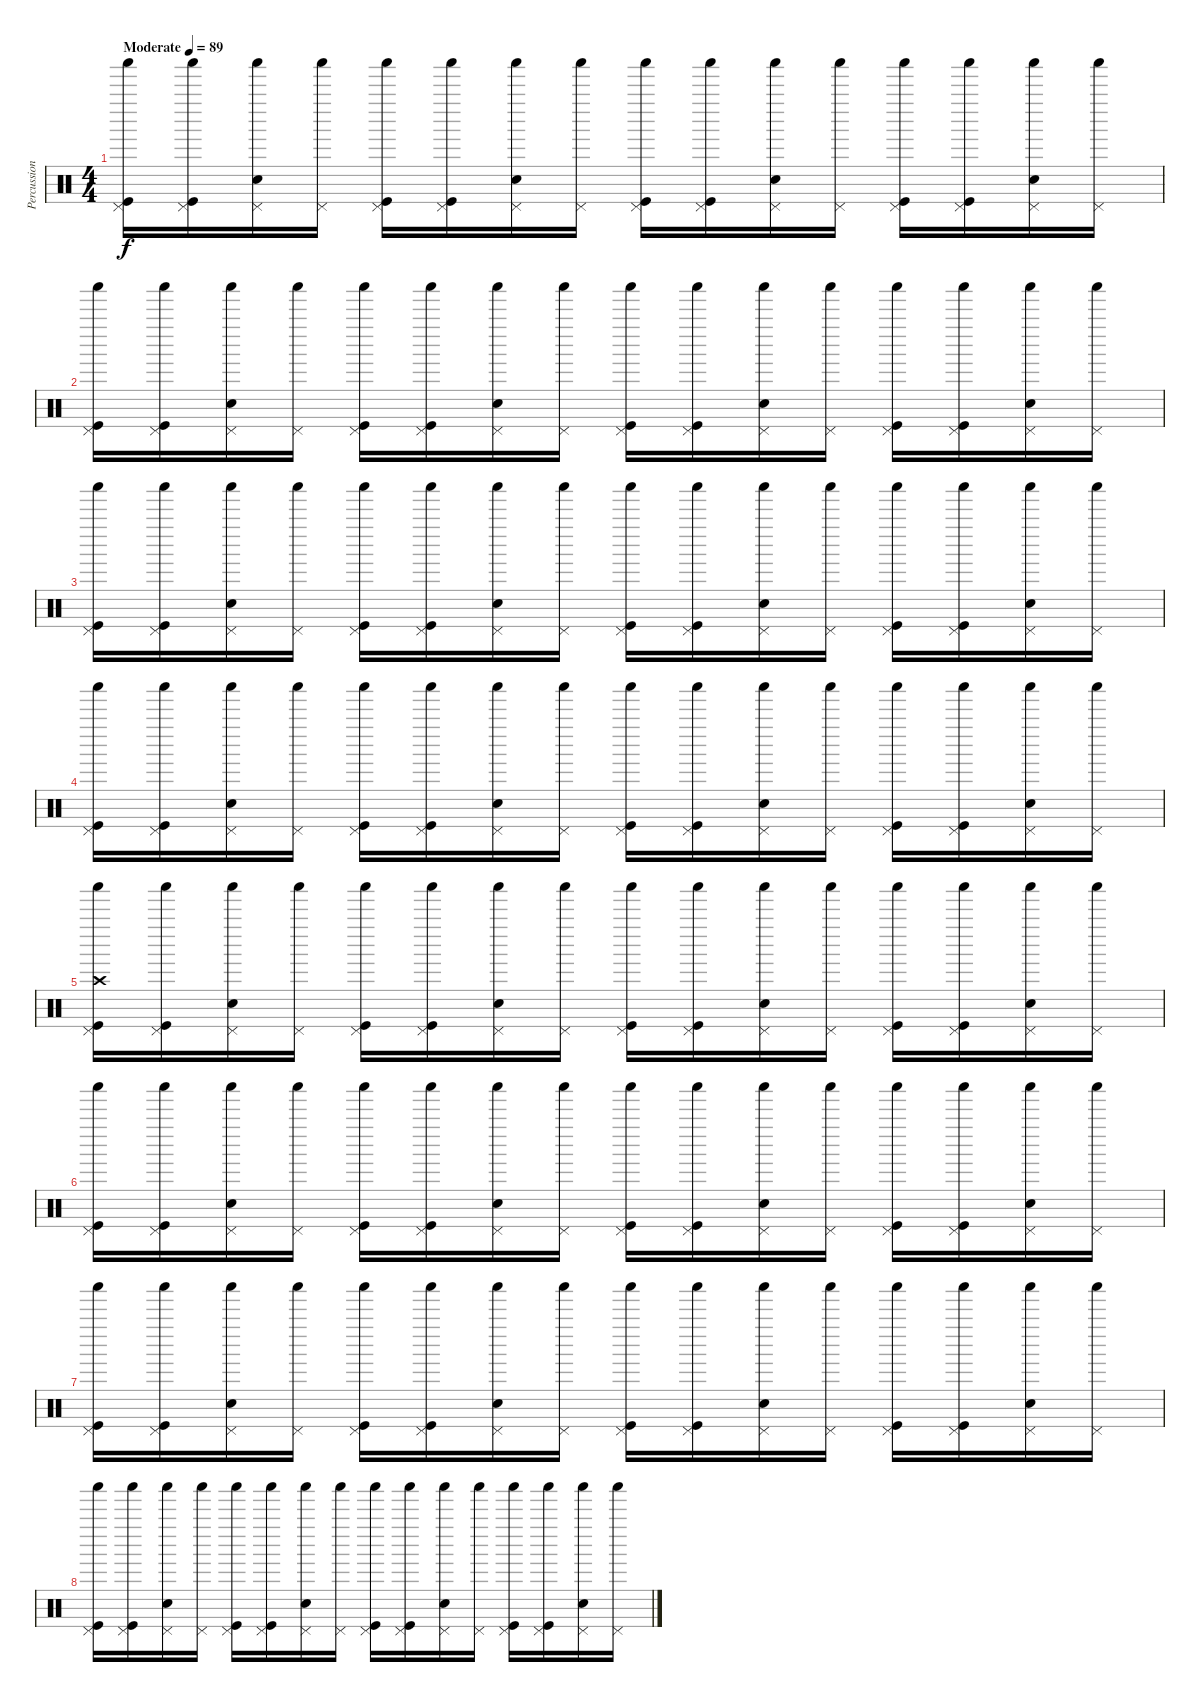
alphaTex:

\track ("Percussion" "Percussion") {instrument percussion}
\staff {score}
\articulation defaults
\ts (4 4)
\tempo (89 "Moderate")
\clef neutral
\ks c
("Pedal Hi-Hat (hit)" "Shaker (hit)" "Kick (hit)").16{dy f} ("Pedal Hi-Hat (hit)" "Shaker (hit)" "Kick (hit)").16 ("Pedal Hi-Hat (hit)" "Shaker (hit)" "Snare (hit) 2").16 ("Pedal Hi-Hat (hit)" "Shaker (hit)").16 ("Pedal Hi-Hat (hit)" "Shaker (hit)" "Kick (hit)").16 ("Pedal Hi-Hat (hit)" "Shaker (hit)" "Kick (hit)").16 ("Pedal Hi-Hat (hit)" "Shaker (hit)" "Snare (hit) 2").16 ("Pedal Hi-Hat (hit)" "Shaker (hit)").16 ("Pedal Hi-Hat (hit)" "Shaker (hit)" "Kick (hit)").16 ("Pedal Hi-Hat (hit)" "Shaker (hit)" "Kick (hit)").16 ("Pedal Hi-Hat (hit)" "Shaker (hit)" "Snare (hit) 2").16 ("Pedal Hi-Hat (hit)" "Shaker (hit)").16 ("Pedal Hi-Hat (hit)" "Shaker (hit)" "Kick (hit)").16 ("Pedal Hi-Hat (hit)" "Shaker (hit)" "Kick (hit)").16 ("Pedal Hi-Hat (hit)" "Shaker (hit)" "Snare (hit) 2").16 ("Pedal Hi-Hat (hit)" "Shaker (hit)").16 |
("Pedal Hi-Hat (hit)" "Shaker (hit)" "Kick (hit)").16 ("Pedal Hi-Hat (hit)" "Shaker (hit)" "Kick (hit)").16 ("Pedal Hi-Hat (hit)" "Shaker (hit)" "Snare (hit) 2").16 ("Pedal Hi-Hat (hit)" "Shaker (hit)").16 ("Pedal Hi-Hat (hit)" "Shaker (hit)" "Kick (hit)").16 ("Pedal Hi-Hat (hit)" "Shaker (hit)" "Kick (hit)").16 ("Pedal Hi-Hat (hit)" "Shaker (hit)" "Snare (hit) 2").16 ("Pedal Hi-Hat (hit)" "Shaker (hit)").16 ("Pedal Hi-Hat (hit)" "Shaker (hit)" "Kick (hit)").16 ("Pedal Hi-Hat (hit)" "Shaker (hit)" "Kick (hit)").16 ("Pedal Hi-Hat (hit)" "Shaker (hit)" "Snare (hit) 2").16 ("Pedal Hi-Hat (hit)" "Shaker (hit)").16 ("Pedal Hi-Hat (hit)" "Shaker (hit)" "Kick (hit)").16 ("Pedal Hi-Hat (hit)" "Shaker (hit)" "Kick (hit)").16 ("Pedal Hi-Hat (hit)" "Shaker (hit)" "Snare (hit) 2").16 ("Pedal Hi-Hat (hit)" "Shaker (hit)").16 |
("Pedal Hi-Hat (hit)" "Shaker (hit)" "Kick (hit)").16 ("Pedal Hi-Hat (hit)" "Shaker (hit)" "Kick (hit)").16 ("Pedal Hi-Hat (hit)" "Shaker (hit)" "Snare (hit) 2").16 ("Pedal Hi-Hat (hit)" "Shaker (hit)").16 ("Pedal Hi-Hat (hit)" "Shaker (hit)" "Kick (hit)").16 ("Pedal Hi-Hat (hit)" "Shaker (hit)" "Kick (hit)").16 ("Pedal Hi-Hat (hit)" "Shaker (hit)" "Snare (hit) 2").16 ("Pedal Hi-Hat (hit)" "Shaker (hit)").16 ("Pedal Hi-Hat (hit)" "Shaker (hit)" "Kick (hit)").16 ("Pedal Hi-Hat (hit)" "Shaker (hit)" "Kick (hit)").16 ("Pedal Hi-Hat (hit)" "Shaker (hit)" "Snare (hit) 2").16 ("Pedal Hi-Hat (hit)" "Shaker (hit)").16 ("Pedal Hi-Hat (hit)" "Shaker (hit)" "Kick (hit)").16 ("Pedal Hi-Hat (hit)" "Shaker (hit)" "Kick (hit)").16 ("Pedal Hi-Hat (hit)" "Shaker (hit)" "Snare (hit) 2").16 ("Pedal Hi-Hat (hit)" "Shaker (hit)").16 |
("Pedal Hi-Hat (hit)" "Shaker (hit)" "Kick (hit)").16 ("Pedal Hi-Hat (hit)" "Shaker (hit)" "Kick (hit)").16 ("Pedal Hi-Hat (hit)" "Shaker (hit)" "Snare (hit) 2").16 ("Pedal Hi-Hat (hit)" "Shaker (hit)").16 ("Pedal Hi-Hat (hit)" "Shaker (hit)" "Kick (hit)").16 ("Pedal Hi-Hat (hit)" "Shaker (hit)" "Kick (hit)").16 ("Pedal Hi-Hat (hit)" "Shaker (hit)" "Snare (hit) 2").16 ("Pedal Hi-Hat (hit)" "Shaker (hit)").16 ("Pedal Hi-Hat (hit)" "Shaker (hit)" "Kick (hit)").16 ("Pedal Hi-Hat (hit)" "Shaker (hit)" "Kick (hit)").16 ("Pedal Hi-Hat (hit)" "Shaker (hit)" "Snare (hit) 2").16 ("Pedal Hi-Hat (hit)" "Shaker (hit)").16 ("Pedal Hi-Hat (hit)" "Shaker (hit)" "Kick (hit)").16 ("Pedal Hi-Hat (hit)" "Shaker (hit)" "Kick (hit)").16 ("Pedal Hi-Hat (hit)" "Shaker (hit)" "Snare (hit) 2").16 ("Pedal Hi-Hat (hit)" "Shaker (hit)").16 |
("Pedal Hi-Hat (hit)" "Shaker (hit)" "Crash high (hit)" "Kick (hit)").16 ("Pedal Hi-Hat (hit)" "Shaker (hit)" "Kick (hit)").16 ("Pedal Hi-Hat (hit)" "Shaker (hit)" "Snare (hit) 2").16 ("Pedal Hi-Hat (hit)" "Shaker (hit)").16 ("Pedal Hi-Hat (hit)" "Shaker (hit)" "Kick (hit)").16 ("Pedal Hi-Hat (hit)" "Shaker (hit)" "Kick (hit)").16 ("Pedal Hi-Hat (hit)" "Shaker (hit)" "Snare (hit) 2").16 ("Pedal Hi-Hat (hit)" "Shaker (hit)").16 ("Pedal Hi-Hat (hit)" "Shaker (hit)" "Kick (hit)").16 ("Pedal Hi-Hat (hit)" "Shaker (hit)" "Kick (hit)").16 ("Pedal Hi-Hat (hit)" "Shaker (hit)" "Snare (hit) 2").16 ("Pedal Hi-Hat (hit)" "Shaker (hit)").16 ("Pedal Hi-Hat (hit)" "Shaker (hit)" "Kick (hit)").16 ("Pedal Hi-Hat (hit)" "Shaker (hit)" "Kick (hit)").16 ("Pedal Hi-Hat (hit)" "Shaker (hit)" "Snare (hit) 2").16 ("Pedal Hi-Hat (hit)" "Shaker (hit)").16 |
("Pedal Hi-Hat (hit)" "Shaker (hit)" "Kick (hit)").16 ("Pedal Hi-Hat (hit)" "Shaker (hit)" "Kick (hit)").16 ("Pedal Hi-Hat (hit)" "Shaker (hit)" "Snare (hit) 2").16 ("Pedal Hi-Hat (hit)" "Shaker (hit)").16 ("Pedal Hi-Hat (hit)" "Shaker (hit)" "Kick (hit)").16 ("Pedal Hi-Hat (hit)" "Shaker (hit)" "Kick (hit)").16 ("Pedal Hi-Hat (hit)" "Shaker (hit)" "Snare (hit) 2").16 ("Pedal Hi-Hat (hit)" "Shaker (hit)").16 ("Pedal Hi-Hat (hit)" "Shaker (hit)" "Kick (hit)").16 ("Pedal Hi-Hat (hit)" "Shaker (hit)" "Kick (hit)").16 ("Pedal Hi-Hat (hit)" "Shaker (hit)" "Snare (hit) 2").16 ("Pedal Hi-Hat (hit)" "Shaker (hit)").16 ("Pedal Hi-Hat (hit)" "Shaker (hit)" "Kick (hit)").16 ("Pedal Hi-Hat (hit)" "Shaker (hit)" "Kick (hit)").16 ("Pedal Hi-Hat (hit)" "Shaker (hit)" "Snare (hit) 2").16 ("Pedal Hi-Hat (hit)" "Shaker (hit)").16 |
("Pedal Hi-Hat (hit)" "Shaker (hit)" "Kick (hit)").16 ("Pedal Hi-Hat (hit)" "Shaker (hit)" "Kick (hit)").16 ("Pedal Hi-Hat (hit)" "Shaker (hit)" "Snare (hit) 2").16 ("Pedal Hi-Hat (hit)" "Shaker (hit)").16 ("Pedal Hi-Hat (hit)" "Shaker (hit)" "Kick (hit)").16 ("Pedal Hi-Hat (hit)" "Shaker (hit)" "Kick (hit)").16 ("Pedal Hi-Hat (hit)" "Shaker (hit)" "Snare (hit) 2").16 ("Pedal Hi-Hat (hit)" "Shaker (hit)").16 ("Pedal Hi-Hat (hit)" "Shaker (hit)" "Kick (hit)").16 ("Pedal Hi-Hat (hit)" "Shaker (hit)" "Kick (hit)").16 ("Pedal Hi-Hat (hit)" "Shaker (hit)" "Snare (hit) 2").16 ("Pedal Hi-Hat (hit)" "Shaker (hit)").16 ("Pedal Hi-Hat (hit)" "Shaker (hit)" "Kick (hit)").16 ("Pedal Hi-Hat (hit)" "Shaker (hit)" "Kick (hit)").16 ("Pedal Hi-Hat (hit)" "Shaker (hit)" "Snare (hit) 2").16 ("Pedal Hi-Hat (hit)" "Shaker (hit)").16 |
("Pedal Hi-Hat (hit)" "Shaker (hit)" "Kick (hit)").16 ("Pedal Hi-Hat (hit)" "Shaker (hit)" "Kick (hit)").16 ("Pedal Hi-Hat (hit)" "Shaker (hit)" "Snare (hit) 2").16 ("Pedal Hi-Hat (hit)" "Shaker (hit)").16 ("Pedal Hi-Hat (hit)" "Shaker (hit)" "Kick (hit)").16 ("Pedal Hi-Hat (hit)" "Shaker (hit)" "Kick (hit)").16 ("Pedal Hi-Hat (hit)" "Shaker (hit)" "Snare (hit) 2").16 ("Pedal Hi-Hat (hit)" "Shaker (hit)").16 ("Pedal Hi-Hat (hit)" "Shaker (hit)" "Kick (hit)").16 ("Pedal Hi-Hat (hit)" "Shaker (hit)" "Kick (hit)").16 ("Pedal Hi-Hat (hit)" "Shaker (hit)" "Snare (hit) 2").16 ("Pedal Hi-Hat (hit)" "Shaker (hit)").16 ("Pedal Hi-Hat (hit)" "Shaker (hit)" "Kick (hit)").16 ("Pedal Hi-Hat (hit)" "Shaker (hit)" "Kick (hit)").16 ("Pedal Hi-Hat (hit)" "Shaker (hit)" "Snare (hit) 2").16 ("Pedal Hi-Hat (hit)" "Shaker (hit)").16
